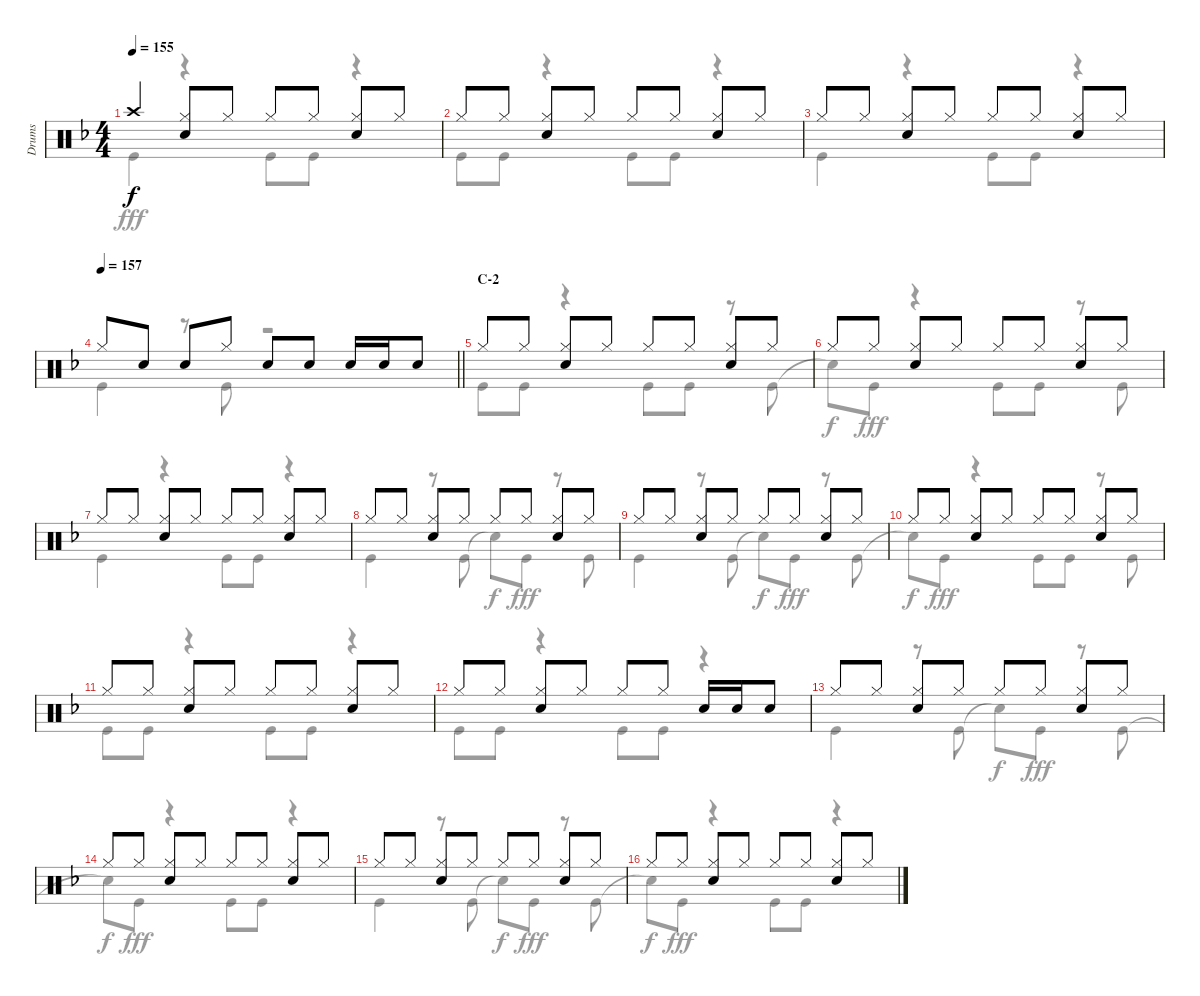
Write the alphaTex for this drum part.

\track ("Drums" "Drums") {instrument percussion}
\staff {score}
\articulation defaults
\voice
\ts (4 4)
\tempo 155
\clef neutral
\ks f "Crash high (hit)".4{dy f}
("Hi-Hat (closed)" "Snare (hit) 2").8 "Hi-Hat (closed)".8 "Hi-Hat (closed)".8 "Hi-Hat (closed)".8 ("Hi-Hat (closed)" "Snare (hit) 2").8 "Hi-Hat (closed)".8 |
"Hi-Hat (closed)".8 "Hi-Hat (closed)".8 ("Hi-Hat (closed)" "Snare (hit) 2").8 "Hi-Hat (closed)".8 "Hi-Hat (closed)".8 "Hi-Hat (closed)".8 ("Hi-Hat (closed)" "Snare (hit) 2").8 "Hi-Hat (closed)".8 |
"Hi-Hat (closed)".8 "Hi-Hat (closed)".8 ("Hi-Hat (closed)" "Snare (hit) 2").8 "Hi-Hat (closed)".8 "Hi-Hat (closed)".8 "Hi-Hat (closed)".8 ("Hi-Hat (closed)" "Snare (hit) 2").8 "Hi-Hat (closed)".8 |
\tempo 157
\barLineRight lightlight "Hi-Hat (closed)".8 "Snare (hit) 2".8 "Snare (hit) 2".8 "Hi-Hat (closed)".8 "Snare (hit) 2".8 "Snare (hit) 2".8 "Snare (hit) 2".16 "Snare (hit) 2".16 "Snare (hit) 2".8
|
\section ("" "C-2")
"Hi-Hat (closed)".8 "Hi-Hat (closed)".8 ("Hi-Hat (closed)" "Snare (hit) 2").8 "Hi-Hat (closed)".8 "Hi-Hat (closed)".8 "Hi-Hat (closed)".8 ("Hi-Hat (closed)" "Snare (hit) 2").8 "Hi-Hat (closed)".8 |
"Hi-Hat (closed)".8 "Hi-Hat (closed)".8 ("Hi-Hat (closed)" "Snare (hit) 2").8 "Hi-Hat (closed)".8 "Hi-Hat (closed)".8 "Hi-Hat (closed)".8 ("Hi-Hat (closed)" "Snare (hit) 2").8 "Hi-Hat (closed)".8 |
"Hi-Hat (closed)".8 "Hi-Hat (closed)".8 ("Hi-Hat (closed)" "Snare (hit) 2").8 "Hi-Hat (closed)".8 "Hi-Hat (closed)".8 "Hi-Hat (closed)".8 ("Hi-Hat (closed)" "Snare (hit) 2").8 "Hi-Hat (closed)".8 |
"Hi-Hat (closed)".8 "Hi-Hat (closed)".8 ("Hi-Hat (closed)" "Snare (hit) 2").8 "Hi-Hat (closed)".8 "Hi-Hat (closed)".8 "Hi-Hat (closed)".8 ("Hi-Hat (closed)" "Snare (hit) 2").8 "Hi-Hat (closed)".8 |
"Hi-Hat (closed)".8 "Hi-Hat (closed)".8 ("Hi-Hat (closed)" "Snare (hit) 2").8 "Hi-Hat (closed)".8 "Hi-Hat (closed)".8 "Hi-Hat (closed)".8 ("Hi-Hat (closed)" "Snare (hit) 2").8 "Hi-Hat (closed)".8 |
"Hi-Hat (closed)".8 "Hi-Hat (closed)".8 ("Hi-Hat (closed)" "Snare (hit) 2").8 "Hi-Hat (closed)".8 "Hi-Hat (closed)".8 "Hi-Hat (closed)".8 ("Hi-Hat (closed)" "Snare (hit) 2").8 "Hi-Hat (closed)".8 |
"Hi-Hat (closed)".8 "Hi-Hat (closed)".8 ("Hi-Hat (closed)" "Snare (hit) 2").8 "Hi-Hat (closed)".8 "Hi-Hat (closed)".8 "Hi-Hat (closed)".8 ("Hi-Hat (closed)" "Snare (hit) 2").8 "Hi-Hat (closed)".8 |
"Hi-Hat (closed)".8 "Hi-Hat (closed)".8 ("Hi-Hat (closed)" "Snare (hit) 2").8 "Hi-Hat (closed)".8 "Hi-Hat (closed)".8 "Hi-Hat (closed)".8 "Snare (hit) 2".16 "Snare (hit) 2".16 "Snare (hit) 2".8 |
"Hi-Hat (closed)".8 "Hi-Hat (closed)".8 ("Hi-Hat (closed)" "Snare (hit) 2").8 "Hi-Hat (closed)".8 "Hi-Hat (closed)".8 "Hi-Hat (closed)".8 ("Hi-Hat (closed)" "Snare (hit) 2").8 "Hi-Hat (closed)".8 |
"Hi-Hat (closed)".8 "Hi-Hat (closed)".8 ("Hi-Hat (closed)" "Snare (hit) 2").8 "Hi-Hat (closed)".8 "Hi-Hat (closed)".8 "Hi-Hat (closed)".8 ("Hi-Hat (closed)" "Snare (hit) 2").8 "Hi-Hat (closed)".8 |
"Hi-Hat (closed)".8 "Hi-Hat (closed)".8 ("Hi-Hat (closed)" "Snare (hit) 2").8 "Hi-Hat (closed)".8 "Hi-Hat (closed)".8 "Hi-Hat (closed)".8 ("Hi-Hat (closed)" "Snare (hit) 2").8 "Hi-Hat (closed)".8 |
"Hi-Hat (closed)".8 "Hi-Hat (closed)".8 ("Hi-Hat (closed)" "Snare (hit) 2").8 "Hi-Hat (closed)".8 "Hi-Hat (closed)".8 "Hi-Hat (closed)".8 ("Hi-Hat (closed)" "Snare (hit) 2").8 "Hi-Hat (closed)".8
\voice
\clef neutral
\ottava regular
\simile none
\ks f "Kick (hit)".4{dy fff}
r.4 "Kick (hit)".8 "Kick (hit)".8 r.4 |
"Kick (hit)".8 "Kick (hit)".8 r.4 "Kick (hit)".8 "Kick (hit)".8 r.4 |
"Kick (hit)".4 r.4 "Kick (hit)".8 "Kick (hit)".8 r.4 |
\barLineRight lightlight "Kick (hit)".4
r.8 "Kick (hit)".8 r.2 |
"Kick (hit)".8 "Kick (hit)".8 r.4 "Kick (hit)".8 "Kick (hit)".8 r.8 "Kick (hit)".8 |
"Snare (hit)"{t}.8{dy f} "Kick (hit)".8{dy fff} r.4 "Kick (hit)".8 "Kick (hit)".8 r.8 "Kick (hit)".8 |
"Kick (hit)".4 r.4 "Kick (hit)".8 "Kick (hit)".8 r.4 |
"Kick (hit)".4 r.8 "Kick (hit)".8 "Snare (hit)"{t}.8{dy f} "Kick (hit)".8{dy fff} r.8 "Kick (hit)".8 |
"Kick (hit)".4 r.8 "Kick (hit)".8 "Snare (hit)"{t}.8{dy f} "Kick (hit)".8{dy fff} r.8 "Kick (hit)".8 |
"Snare (hit)"{t}.8{dy f} "Kick (hit)".8{dy fff} r.4 "Kick (hit)".8 "Kick (hit)".8 r.8 "Kick (hit)".8 |
"Kick (hit)".8 "Kick (hit)".8 r.4 "Kick (hit)".8 "Kick (hit)".8 r.4 |
"Kick (hit)".8 "Kick (hit)".8 r.4 "Kick (hit)".8 "Kick (hit)".8 r.4 |
"Kick (hit)".4 r.8 "Kick (hit)".8 "Snare (hit)"{t}.8{dy f} "Kick (hit)".8{dy fff} r.8 "Kick (hit)".8 |
"Snare (hit)"{t}.8{dy f} "Kick (hit)".8{dy fff} r.4 "Kick (hit)".8 "Kick (hit)".8 r.4 |
"Kick (hit)".4 r.8 "Kick (hit)".8 "Snare (hit)"{t}.8{dy f} "Kick (hit)".8{dy fff} r.8 "Kick (hit)".8 |
"Snare (hit)"{t}.8{dy f} "Kick (hit)".8{dy fff} r.4 "Kick (hit)".8 "Kick (hit)".8 r.4
